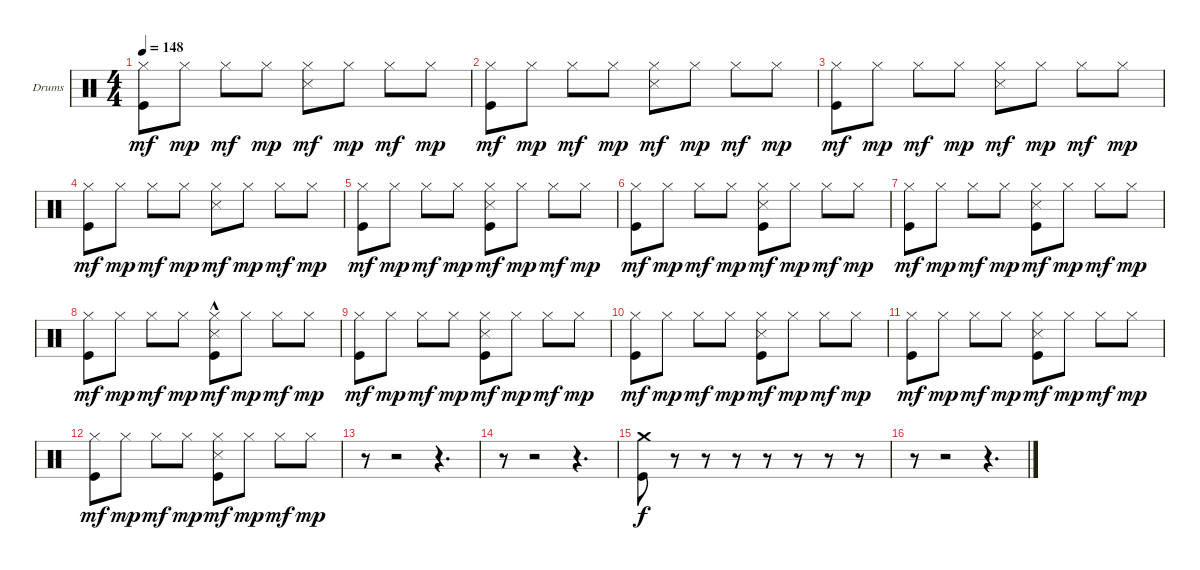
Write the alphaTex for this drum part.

\defaultSystemsLayout 4
\bracketExtendMode groupsimilarinstruments
\firstSystemTrackNameOrientation horizontal
\otherSystemsTrackNameOrientation horizontal
\track ("Drumkit" "Drums") {instrument percussion}
\staff {score}
\articulation defaults
\ts (4 4)
\tempo 148
\clef neutral
\scale
0.333333
\ks c
("Hi-Hat (closed)" "Kick (hit)").8{dy mf} "Hi-Hat (closed)".8{dy mp} "Hi-Hat (closed)".8{dy mf} "Hi-Hat (closed)".8{dy mp} ("Hi-Hat (closed)" "Snare (side stick) 3").8{dy mf} "Hi-Hat (closed)".8{dy mp} "Hi-Hat (closed)".8{dy mf} "Hi-Hat (closed)".8{dy mp} |
\scale
0.333333 ("Hi-Hat (closed)" "Kick (hit)").8{dy mf} "Hi-Hat (closed)".8{dy mp} "Hi-Hat (closed)".8{dy mf} "Hi-Hat (closed)".8{dy mp} ("Hi-Hat (closed)" "Snare (side stick) 3").8{dy mf} "Hi-Hat (closed)".8{dy mp} "Hi-Hat (closed)".8{dy mf} "Hi-Hat (closed)".8{dy mp} |
\scale
0.333333 ("Hi-Hat (closed)" "Kick (hit)").8{dy mf} "Hi-Hat (closed)".8{dy mp} "Hi-Hat (closed)".8{dy mf} "Hi-Hat (closed)".8{dy mp} ("Hi-Hat (closed)" "Snare (side stick) 3").8{dy mf} "Hi-Hat (closed)".8{dy mp} "Hi-Hat (closed)".8{dy mf} "Hi-Hat (closed)".8{dy mp} |
\scale
0.333333 ("Hi-Hat (closed)" "Kick (hit)").8{dy mf} "Hi-Hat (closed)".8{dy mp} "Hi-Hat (closed)".8{dy mf} "Hi-Hat (closed)".8{dy mp} ("Hi-Hat (closed)" "Snare (side stick) 3").8{dy mf} "Hi-Hat (closed)".8{dy mp} "Hi-Hat (closed)".8{dy mf} "Hi-Hat (closed)".8{dy mp} |
\scale
0.333333 ("Hi-Hat (closed)" "Kick (hit)").8{dy mf} "Hi-Hat (closed)".8{dy mp} "Hi-Hat (closed)".8{dy mf} "Hi-Hat (closed)".8{dy mp} ("Hi-Hat (closed)" "Kick (hit)" "Snare (side stick) 3").8{dy mf} "Hi-Hat (closed)".8{dy mp} "Hi-Hat (closed)".8{dy mf} "Hi-Hat (closed)".8{dy mp} |
\scale
0.333333 ("Hi-Hat (closed)" "Kick (hit)").8{dy mf} "Hi-Hat (closed)".8{dy mp} "Hi-Hat (closed)".8{dy mf} "Hi-Hat (closed)".8{dy mp} ("Hi-Hat (closed)" "Kick (hit)" "Snare (side stick) 3").8{dy mf} "Hi-Hat (closed)".8{dy mp} "Hi-Hat (closed)".8{dy mf} "Hi-Hat (closed)".8{dy mp} |
\scale
0.333333 ("Hi-Hat (closed)" "Kick (hit)").8{dy mf} "Hi-Hat (closed)".8{dy mp} "Hi-Hat (closed)".8{dy mf} "Hi-Hat (closed)".8{dy mp} ("Hi-Hat (closed)" "Kick (hit)" "Snare (side stick) 3").8{dy mf} "Hi-Hat (closed)".8{dy mp} "Hi-Hat (closed)".8{dy mf} "Hi-Hat (closed)".8{dy mp} |
\scale
0.333333 ("Hi-Hat (closed)" "Kick (hit)").8{dy mf} "Hi-Hat (closed)".8{dy mp} "Hi-Hat (closed)".8{dy mf} "Hi-Hat (closed)".8{dy mp} ("Hi-Hat (closed)"{hac} "Kick (hit)"{hac} "Snare (side stick) 3"{hac}).8{dy mf} "Hi-Hat (closed)".8{dy mp} "Hi-Hat (closed)".8{dy mf} "Hi-Hat (closed)".8{dy mp} |
\scale
0.333333 ("Hi-Hat (closed)" "Kick (hit)").8{dy mf} "Hi-Hat (closed)".8{dy mp} "Hi-Hat (closed)".8{dy mf} "Hi-Hat (closed)".8{dy mp} ("Hi-Hat (closed)" "Kick (hit)" "Snare (side stick) 3").8{dy mf} "Hi-Hat (closed)".8{dy mp} "Hi-Hat (closed)".8{dy mf} "Hi-Hat (closed)".8{dy mp} |
\scale
0.333333 ("Hi-Hat (closed)" "Kick (hit)").8{dy mf} "Hi-Hat (closed)".8{dy mp} "Hi-Hat (closed)".8{dy mf} "Hi-Hat (closed)".8{dy mp} ("Hi-Hat (closed)" "Kick (hit)" "Snare (side stick) 3").8{dy mf} "Hi-Hat (closed)".8{dy mp} "Hi-Hat (closed)".8{dy mf} "Hi-Hat (closed)".8{dy mp} |
\scale
0.333333 ("Hi-Hat (closed)" "Kick (hit)").8{dy mf} "Hi-Hat (closed)".8{dy mp} "Hi-Hat (closed)".8{dy mf} "Hi-Hat (closed)".8{dy mp} ("Hi-Hat (closed)" "Kick (hit)" "Snare (side stick) 3").8{dy mf} "Hi-Hat (closed)".8{dy mp} "Hi-Hat (closed)".8{dy mf} "Hi-Hat (closed)".8{dy mp} |
\scale
0.333333 ("Hi-Hat (closed)" "Kick (hit)").8{dy mf} "Hi-Hat (closed)".8{dy mp} "Hi-Hat (closed)".8{dy mf} "Hi-Hat (closed)".8{dy mp} ("Hi-Hat (closed)" "Kick (hit)" "Snare (side stick) 3").8{dy mf} "Hi-Hat (closed)".8{dy mp} "Hi-Hat (closed)".8{dy mf} "Hi-Hat (closed)".8{dy mp} |
\scale
0.333333 r.8 r.2 r.4{d} |
\scale
0.333333 r.8 r.2 r.4{d} |
\scale
0.333333 ("Crash medium (hit)" "Kick (hit)").8{dy f} r.8 r.8 r.8 r.8 r.8 r.8 r.8 |
\scale
0.333333 r.8 r.2 r.4{d}
